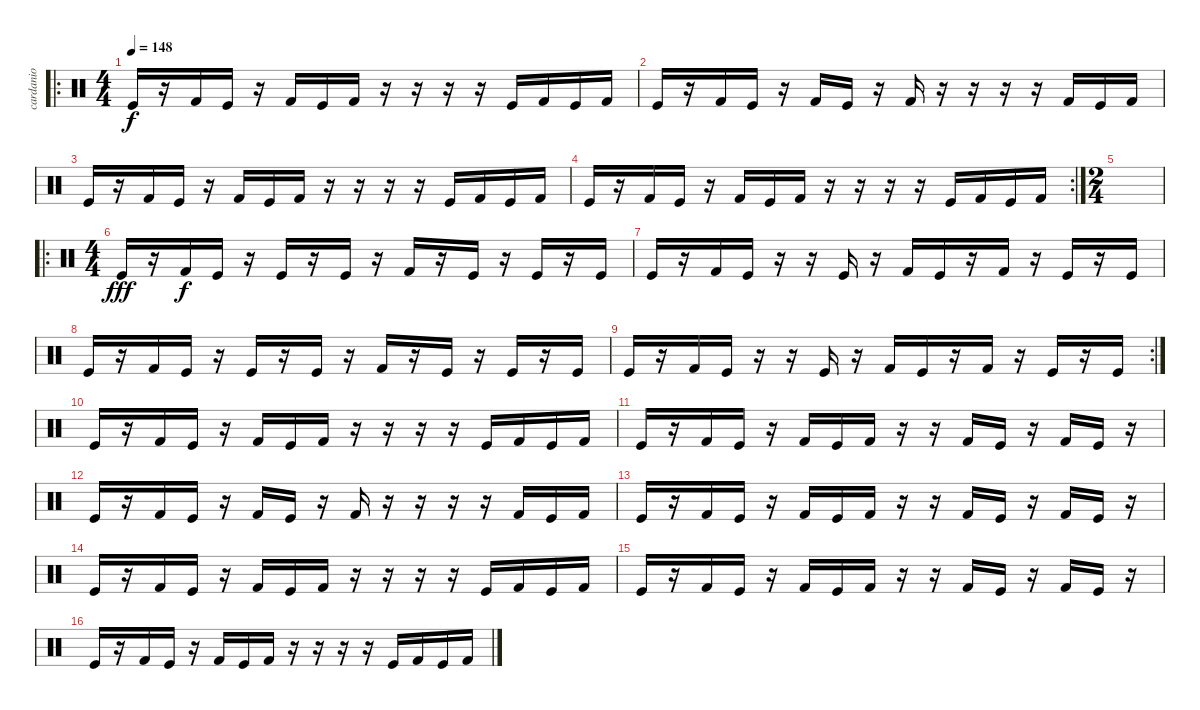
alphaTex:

\track ("cardanio" "cardanio") {instrument percussion}
\staff {score}
\articulation defaults
\ro
\ts (4 4)
\tempo 148
\clef neutral
\ks c "Kick (hit)".16{dy f}
r.16 "Kick (hit) 2".16 "Kick (hit)".16 r.16 "Kick (hit) 2".16 "Kick (hit)".16 "Kick (hit) 2".16 r.16 r.16 r.16 r.16 "Kick (hit)".16 "Kick (hit) 2".16 "Kick (hit)".16 "Kick (hit) 2".16 |
"Kick (hit)".16 r.16 "Kick (hit) 2".16 "Kick (hit)".16 r.16 "Kick (hit) 2".16 "Kick (hit)".16 r.16 "Kick (hit) 2".16 r.16 r.16 r.16 r.16 "Kick (hit) 2".16 "Kick (hit)".16 "Kick (hit) 2".16 |
"Kick (hit)".16 r.16 "Kick (hit) 2".16 "Kick (hit)".16 r.16 "Kick (hit) 2".16 "Kick (hit)".16 "Kick (hit) 2".16 r.16 r.16 r.16 r.16 "Kick (hit)".16 "Kick (hit) 2".16 "Kick (hit)".16 "Kick (hit) 2".16 |
\rc 2 "Kick (hit)".16
r.16 "Kick (hit) 2".16 "Kick (hit)".16 r.16 "Kick (hit) 2".16 "Kick (hit)".16 "Kick (hit) 2".16 r.16 r.16 r.16 r.16 "Kick (hit)".16 "Kick (hit) 2".16 "Kick (hit)".16 "Kick (hit) 2".16 |
\ts (2 4)
|
\ro
\ts (4 4)
"Kick (hit)".16{dy fff} r.16 "Kick (hit) 2".16{dy f} "Kick (hit)".16 r.16 "Kick (hit)".16 r.16 "Kick (hit)".16 r.16 "Kick (hit) 2".16 r.16 "Kick (hit)".16 r.16 "Kick (hit)".16 r.16 "Kick (hit)".16 |
"Kick (hit)".16 r.16 "Kick (hit) 2".16 "Kick (hit)".16 r.16 r.16 "Kick (hit)".16 r.16 "Kick (hit) 2".16 "Kick (hit)".16 r.16 "Kick (hit) 2".16 r.16 "Kick (hit)".16 r.16 "Kick (hit)".16 |
"Kick (hit)".16 r.16 "Kick (hit) 2".16 "Kick (hit)".16 r.16 "Kick (hit)".16 r.16 "Kick (hit)".16 r.16 "Kick (hit) 2".16 r.16 "Kick (hit)".16 r.16 "Kick (hit)".16 r.16 "Kick (hit)".16 |
\rc 2 "Kick (hit)".16
r.16 "Kick (hit) 2".16 "Kick (hit)".16 r.16 r.16 "Kick (hit)".16 r.16 "Kick (hit) 2".16 "Kick (hit)".16 r.16 "Kick (hit) 2".16 r.16 "Kick (hit)".16 r.16 "Kick (hit)".16 |
"Kick (hit)".16 r.16 "Kick (hit) 2".16 "Kick (hit)".16 r.16 "Kick (hit) 2".16 "Kick (hit)".16 "Kick (hit) 2".16 r.16 r.16 r.16 r.16 "Kick (hit)".16 "Kick (hit) 2".16 "Kick (hit)".16 "Kick (hit) 2".16 |
"Kick (hit)".16 r.16 "Kick (hit) 2".16 "Kick (hit)".16 r.16 "Kick (hit) 2".16 "Kick (hit)".16 "Kick (hit) 2".16 r.16 r.16 "Kick (hit) 2".16 "Kick (hit)".16 r.16 "Kick (hit) 2".16 "Kick (hit)".16 r.16 |
"Kick (hit)".16 r.16 "Kick (hit) 2".16 "Kick (hit)".16 r.16 "Kick (hit) 2".16 "Kick (hit)".16 r.16 "Kick (hit) 2".16 r.16 r.16 r.16 r.16 "Kick (hit) 2".16 "Kick (hit)".16 "Kick (hit) 2".16 |
"Kick (hit)".16 r.16 "Kick (hit) 2".16 "Kick (hit)".16 r.16 "Kick (hit) 2".16 "Kick (hit)".16 "Kick (hit) 2".16 r.16 r.16 "Kick (hit) 2".16 "Kick (hit)".16 r.16 "Kick (hit) 2".16 "Kick (hit)".16 r.16 |
"Kick (hit)".16 r.16 "Kick (hit) 2".16 "Kick (hit)".16 r.16 "Kick (hit) 2".16 "Kick (hit)".16 "Kick (hit) 2".16 r.16 r.16 r.16 r.16 "Kick (hit)".16 "Kick (hit) 2".16 "Kick (hit)".16 "Kick (hit) 2".16 |
"Kick (hit)".16 r.16 "Kick (hit) 2".16 "Kick (hit)".16 r.16 "Kick (hit) 2".16 "Kick (hit)".16 "Kick (hit) 2".16 r.16 r.16 "Kick (hit) 2".16 "Kick (hit)".16 r.16 "Kick (hit) 2".16 "Kick (hit)".16 r.16 |
"Kick (hit)".16 r.16 "Kick (hit) 2".16 "Kick (hit)".16 r.16 "Kick (hit) 2".16 "Kick (hit)".16 "Kick (hit) 2".16 r.16 r.16 r.16 r.16 "Kick (hit)".16 "Kick (hit) 2".16 "Kick (hit)".16 "Kick (hit) 2".16
